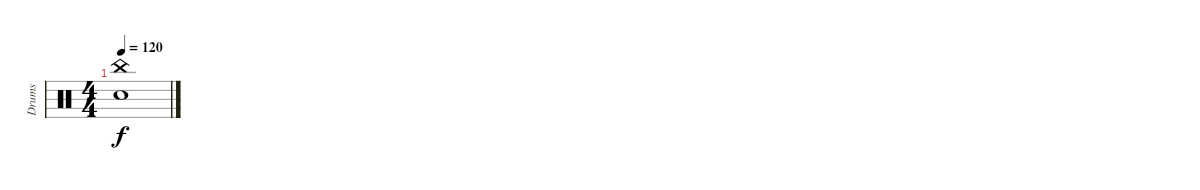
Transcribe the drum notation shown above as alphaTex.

\track ("Drums" "Drums") {instrument percussion}
\staff {score}
\articulation defaults
\ts (4 4)
\tempo 120
\clef neutral
\ks c
("China (hit)" "Snare (hit)").1{dy f}
